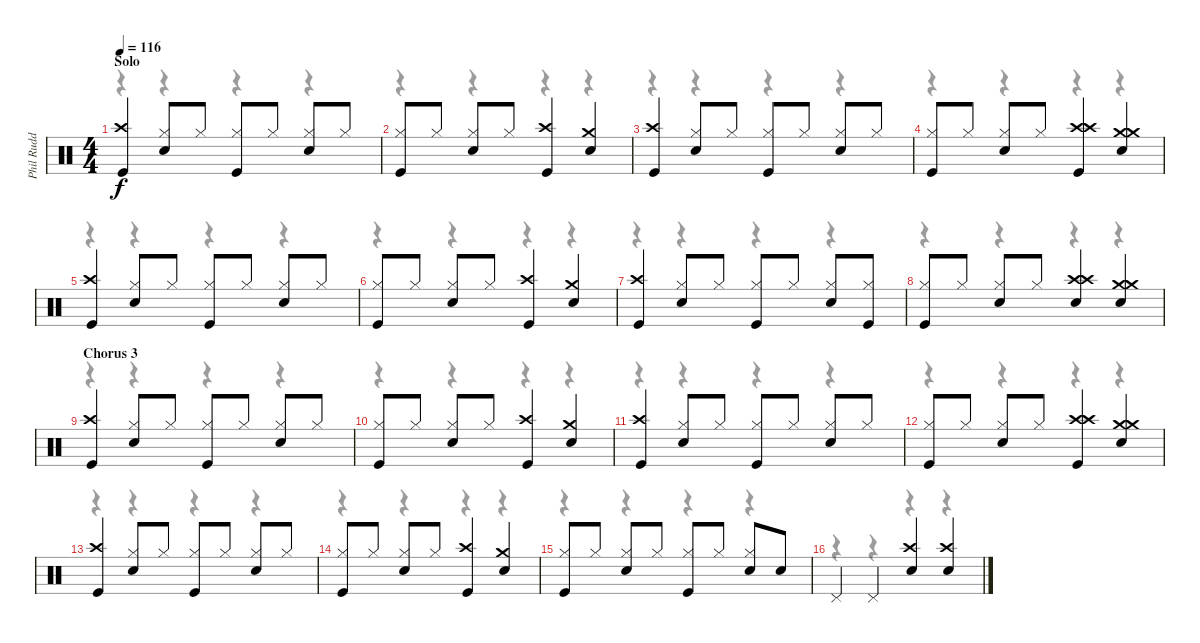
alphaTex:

\track ("Phil Rudd" "Phil Rudd") {instrument percussion}
\staff {score}
\articulation defaults
\voice
\ts (4 4)
\section ("" "Solo")
\tempo 116
\clef neutral
\ks c
("Crash high (hit)" "Kick (hit)").4{dy f} ("Hi-Hat (closed)" "Snare (hit) 2").8 "Hi-Hat (closed)".8 ("Hi-Hat (closed)" "Kick (hit)").8 "Hi-Hat (closed)".8 ("Hi-Hat (closed)" "Snare (hit) 2").8 "Hi-Hat (closed)".8 |
("Hi-Hat (closed)" "Kick (hit)").8 "Hi-Hat (closed)".8 ("Hi-Hat (closed)" "Snare (hit) 2").8 "Hi-Hat (closed)".8 ("Crash high (hit)" "Kick (hit)").4 ("Crash medium (hit)" "Snare (hit) 2").4 |
("Crash high (hit)" "Kick (hit)").4 ("Hi-Hat (closed)" "Snare (hit) 2").8 "Hi-Hat (closed)".8 ("Hi-Hat (closed)" "Kick (hit)").8 "Hi-Hat (closed)".8 ("Hi-Hat (closed)" "Snare (hit) 2").8 "Hi-Hat (closed)".8 |
("Hi-Hat (closed)" "Kick (hit)").8 "Hi-Hat (closed)".8 ("Hi-Hat (closed)" "Snare (hit) 2").8 "Hi-Hat (closed)".8 ("Crash high (hit)" "Crash high (hit)" "Kick (hit)").4 ("Crash medium (hit)" "Crash medium (hit)" "Snare (hit) 2").4 |
("Crash high (hit)" "Kick (hit)").4 ("Hi-Hat (closed)" "Snare (hit) 2").8 "Hi-Hat (closed)".8 ("Hi-Hat (closed)" "Kick (hit)").8 "Hi-Hat (closed)".8 ("Hi-Hat (closed)" "Snare (hit) 2").8 "Hi-Hat (closed)".8 |
("Hi-Hat (closed)" "Kick (hit)").8 "Hi-Hat (closed)".8 ("Hi-Hat (closed)" "Snare (hit) 2").8 "Hi-Hat (closed)".8 ("Crash high (hit)" "Kick (hit)").4 ("Crash medium (hit)" "Snare (hit) 2").4 |
("Crash high (hit)" "Kick (hit)").4 ("Hi-Hat (closed)" "Snare (hit) 2").8 "Hi-Hat (closed)".8 ("Hi-Hat (closed)" "Kick (hit)").8 "Hi-Hat (closed)".8 ("Hi-Hat (closed)" "Snare (hit) 2").8 ("Hi-Hat (closed)" "Kick (hit)").8 |
("Hi-Hat (closed)" "Kick (hit)").8 "Hi-Hat (closed)".8 ("Hi-Hat (closed)" "Snare (hit) 2").8 "Hi-Hat (closed)".8 ("Crash high (hit)" "Crash high (hit)" "Snare (hit) 2").4 ("Crash medium (hit)" "Crash medium (hit)" "Snare (hit) 2").4 |
\section ("" "Chorus 3")
("Crash high (hit)" "Kick (hit)").4 ("Hi-Hat (closed)" "Snare (hit) 2").8 "Hi-Hat (closed)".8 ("Hi-Hat (closed)" "Kick (hit)").8 "Hi-Hat (closed)".8 ("Hi-Hat (closed)" "Snare (hit) 2").8 "Hi-Hat (closed)".8 |
("Hi-Hat (closed)" "Kick (hit)").8 "Hi-Hat (closed)".8 ("Hi-Hat (closed)" "Snare (hit) 2").8 "Hi-Hat (closed)".8 ("Crash high (hit)" "Kick (hit)").4 ("Crash medium (hit)" "Snare (hit) 2").4 |
("Crash high (hit)" "Kick (hit)").4 ("Hi-Hat (closed)" "Snare (hit) 2").8 "Hi-Hat (closed)".8 ("Hi-Hat (closed)" "Kick (hit)").8 "Hi-Hat (closed)".8 ("Hi-Hat (closed)" "Snare (hit) 2").8 "Hi-Hat (closed)".8 |
("Hi-Hat (closed)" "Kick (hit)").8 "Hi-Hat (closed)".8 ("Hi-Hat (closed)" "Snare (hit) 2").8 "Hi-Hat (closed)".8 ("Crash high (hit)" "Crash high (hit)" "Kick (hit)").4 ("Crash medium (hit)" "Crash medium (hit)" "Snare (hit) 2").4 |
("Crash high (hit)" "Kick (hit)").4 ("Hi-Hat (closed)" "Snare (hit) 2").8 "Hi-Hat (closed)".8 ("Hi-Hat (closed)" "Kick (hit)").8 "Hi-Hat (closed)".8 ("Hi-Hat (closed)" "Snare (hit) 2").8 "Hi-Hat (closed)".8 |
("Hi-Hat (closed)" "Kick (hit)").8 "Hi-Hat (closed)".8 ("Hi-Hat (closed)" "Snare (hit) 2").8 "Hi-Hat (closed)".8 ("Crash high (hit)" "Kick (hit)").4 ("Crash medium (hit)" "Snare (hit) 2").4 |
("Hi-Hat (closed)" "Kick (hit)").8 "Hi-Hat (closed)".8 ("Hi-Hat (closed)" "Snare (hit) 2").8 "Hi-Hat (closed)".8 ("Hi-Hat (closed)" "Kick (hit)").8 "Hi-Hat (closed)".8 ("Hi-Hat (closed)" "Snare (hit) 2").8 "Snare (hit) 2".8 |
"Pedal Hi-Hat (hit)".4 "Pedal Hi-Hat (hit)".4 ("Crash high (hit)" "Snare (hit) 2").4 ("Crash high (hit)" "Snare (hit) 2").4
\voice
\clef neutral
\ottava regular
\simile none
\ks c
r.4{dy f} r.4 r.4 r.4 |
r.4 r.4 r.4 r.4 |
r.4 r.4 r.4 r.4 |
r.4 r.4 r.4 r.4 |
r.4 r.4 r.4 r.4 |
r.4 r.4 r.4 r.4 |
r.4 r.4 r.4 r.4 |
r.4 r.4 r.4 r.4 |
r.4 r.4 r.4 r.4 |
r.4 r.4 r.4 r.4 |
r.4 r.4 r.4 r.4 |
r.4 r.4 r.4 r.4 |
r.4 r.4 r.4 r.4 |
r.4 r.4 r.4 r.4 |
r.4 r.4 r.4 r.4 |
r.4 r.4 r.4 r.4
